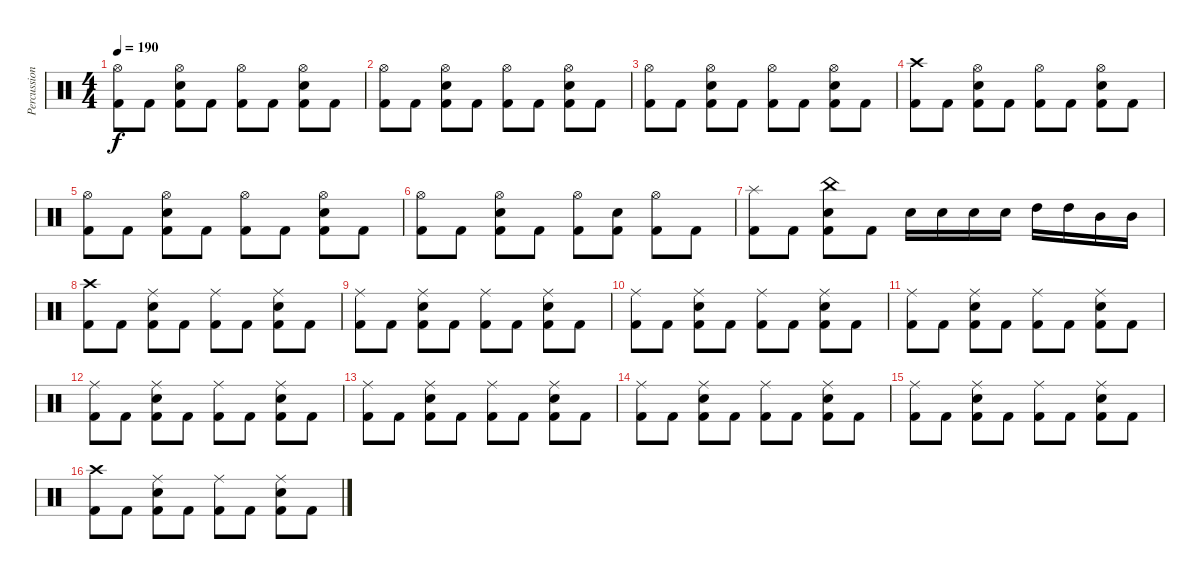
\track ("Percussion" "Percussion") {instrument percussion}
\staff {score}
\articulation defaults
\ts (4 4)
\tempo 190
\clef neutral
\ks c
("Hi-Hat (open)" "Kick (hit) 2").8{dy f} "Kick (hit) 2".8 ("Hi-Hat (open)" "Snare (hit) 2" "Kick (hit) 2").8 "Kick (hit) 2".8 ("Hi-Hat (open)" "Kick (hit) 2").8 "Kick (hit) 2".8 ("Hi-Hat (open)" "Snare (hit) 2" "Kick (hit) 2").8 "Kick (hit) 2".8 |
("Hi-Hat (open)" "Kick (hit) 2").8 "Kick (hit) 2".8 ("Hi-Hat (open)" "Snare (hit) 2" "Kick (hit) 2").8 "Kick (hit) 2".8 ("Hi-Hat (open)" "Kick (hit) 2").8 "Kick (hit) 2".8 ("Hi-Hat (open)" "Snare (hit) 2" "Kick (hit) 2").8 "Kick (hit) 2".8 |
("Hi-Hat (open)" "Kick (hit) 2").8 "Kick (hit) 2".8 ("Hi-Hat (open)" "Snare (hit) 2" "Kick (hit) 2").8 "Kick (hit) 2".8 ("Hi-Hat (open)" "Kick (hit) 2").8 "Kick (hit) 2".8 ("Hi-Hat (open)" "Snare (hit) 2" "Kick (hit) 2").8 "Kick (hit) 2".8 |
("Crash high (hit)" "Kick (hit) 2").8 "Kick (hit) 2".8 ("Hi-Hat (open)" "Snare (hit) 2" "Kick (hit) 2").8 "Kick (hit) 2".8 ("Hi-Hat (open)" "Kick (hit) 2").8 "Kick (hit) 2".8 ("Hi-Hat (open)" "Snare (hit) 2" "Kick (hit) 2").8 "Kick (hit) 2".8 |
("Hi-Hat (open)" "Kick (hit) 2").8 "Kick (hit) 2".8 ("Hi-Hat (open)" "Snare (hit) 2" "Kick (hit) 2").8 "Kick (hit) 2".8 ("Hi-Hat (open)" "Kick (hit) 2").8 "Kick (hit) 2".8 ("Hi-Hat (open)" "Snare (hit) 2" "Kick (hit) 2").8 "Kick (hit) 2".8 |
("Hi-Hat (open)" "Kick (hit) 2").8 "Kick (hit) 2".8 ("Hi-Hat (open)" "Snare (hit) 2" "Kick (hit) 2").8 "Kick (hit) 2".8 ("Hi-Hat (open)" "Kick (hit) 2").8 ("Snare (hit) 2" "Kick (hit) 2").8 ("Hi-Hat (open)" "Kick (hit) 2").8 "Kick (hit) 2".8 |
("Splash (hit)" "Kick (hit) 2").8 "Kick (hit) 2".8 ("China (hit)" "Snare (hit) 2" "Kick (hit) 2").8 "Kick (hit) 2".8 "Snare (hit) 2".16 "Snare (hit) 2".16 "Snare (hit) 2".16 "Snare (hit) 2".16 "High Tom (hit)".16 "High Tom (hit)".16 "Mid Tom (hit)".16 "Mid Tom (hit)".16 |
("Crash high (hit)" "Kick (hit) 2").8 "Kick (hit) 2".8 ("Ride (middle)" "Snare (hit) 2" "Kick (hit) 2").8 "Kick (hit) 2".8 ("Ride (middle)" "Kick (hit) 2").8 "Kick (hit) 2".8 ("Ride (middle)" "Snare (hit) 2" "Kick (hit) 2").8 "Kick (hit) 2".8 |
("Ride (middle)" "Kick (hit) 2").8 "Kick (hit) 2".8 ("Ride (middle)" "Snare (hit) 2" "Kick (hit) 2").8 "Kick (hit) 2".8 ("Ride (middle)" "Kick (hit) 2").8 "Kick (hit) 2".8 ("Ride (middle)" "Snare (hit) 2" "Kick (hit) 2").8 "Kick (hit) 2".8 |
("Ride (middle)" "Kick (hit) 2").8 "Kick (hit) 2".8 ("Ride (middle)" "Snare (hit) 2" "Kick (hit) 2").8 "Kick (hit) 2".8 ("Ride (middle)" "Kick (hit) 2").8 "Kick (hit) 2".8 ("Ride (middle)" "Snare (hit) 2" "Kick (hit) 2").8 "Kick (hit) 2".8 |
("Ride (middle)" "Kick (hit) 2").8 "Kick (hit) 2".8 ("Ride (middle)" "Snare (hit) 2" "Kick (hit) 2").8 "Kick (hit) 2".8 ("Ride (middle)" "Kick (hit) 2").8 "Kick (hit) 2".8 ("Ride (middle)" "Snare (hit) 2" "Kick (hit) 2").8 "Kick (hit) 2".8 |
("Ride (middle)" "Kick (hit) 2").8 "Kick (hit) 2".8 ("Ride (middle)" "Snare (hit) 2" "Kick (hit) 2").8 "Kick (hit) 2".8 ("Ride (middle)" "Kick (hit) 2").8 "Kick (hit) 2".8 ("Ride (middle)" "Snare (hit) 2" "Kick (hit) 2").8 "Kick (hit) 2".8 |
("Ride (middle)" "Kick (hit) 2").8 "Kick (hit) 2".8 ("Ride (middle)" "Snare (hit) 2" "Kick (hit) 2").8 "Kick (hit) 2".8 ("Ride (middle)" "Kick (hit) 2").8 "Kick (hit) 2".8 ("Ride (middle)" "Snare (hit) 2" "Kick (hit) 2").8 "Kick (hit) 2".8 |
("Ride (middle)" "Kick (hit) 2").8 "Kick (hit) 2".8 ("Ride (middle)" "Snare (hit) 2" "Kick (hit) 2").8 "Kick (hit) 2".8 ("Ride (middle)" "Kick (hit) 2").8 "Kick (hit) 2".8 ("Ride (middle)" "Snare (hit) 2" "Kick (hit) 2").8 "Kick (hit) 2".8 |
("Ride (middle)" "Kick (hit) 2").8 "Kick (hit) 2".8 ("Ride (middle)" "Snare (hit) 2" "Kick (hit) 2").8 "Kick (hit) 2".8 ("Ride (middle)" "Kick (hit) 2").8 "Kick (hit) 2".8 ("Ride (middle)" "Snare (hit) 2" "Kick (hit) 2").8 "Kick (hit) 2".8 |
("Crash high (hit)" "Kick (hit) 2").8 "Kick (hit) 2".8 ("Ride (middle)" "Snare (hit) 2" "Kick (hit) 2").8 "Kick (hit) 2".8 ("Ride (middle)" "Kick (hit) 2").8 "Kick (hit) 2".8 ("Ride (middle)" "Snare (hit) 2" "Kick (hit) 2").8 "Kick (hit) 2".8
